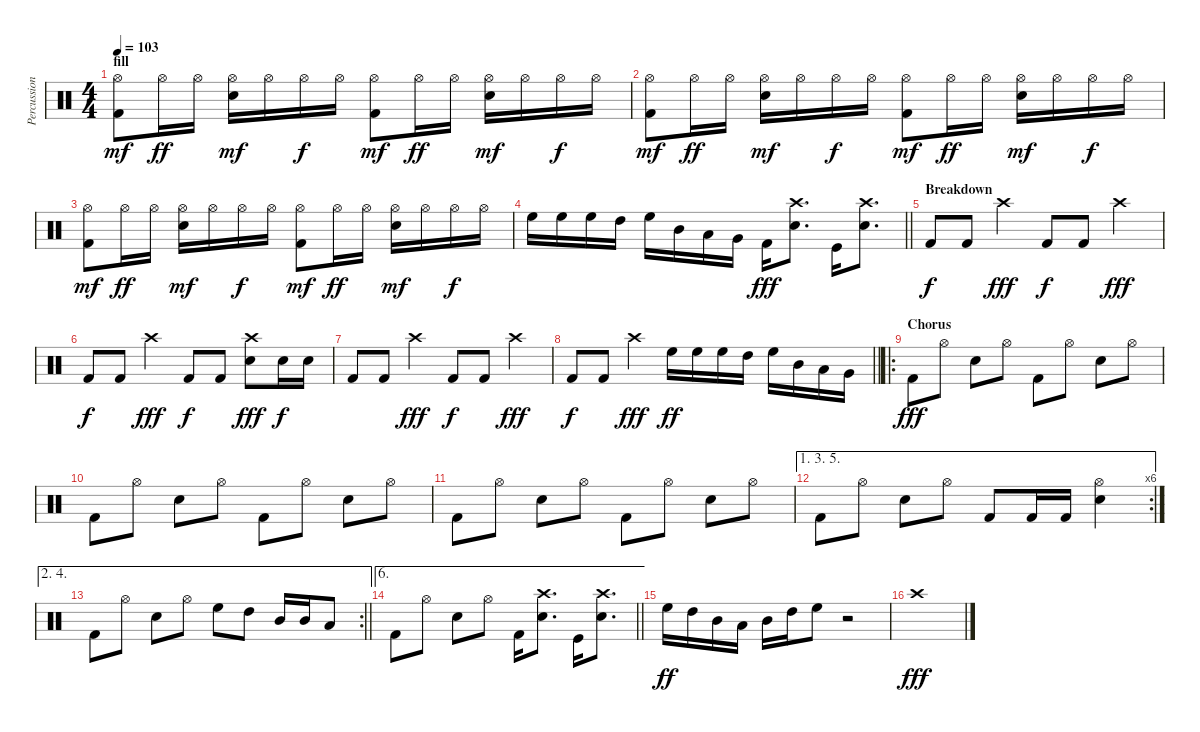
\track ("Percussion" "Percussion") {instrument percussion}
\staff {score}
\articulation defaults
\ts (4 4)
\section ("" "fill")
\tempo 103
\clef neutral
\ks c
("Hi-Hat (open)" "Kick (hit) 2").8{dy mf} "Hi-Hat (open)".16{dy ff} "Hi-Hat (open)".16 ("Hi-Hat (open)" "Snare (hit) 2").16{dy mf} "Hi-Hat (open)".16 "Hi-Hat (open)".16{dy f} "Hi-Hat (open)".16 ("Hi-Hat (open)" "Kick (hit) 2").8{dy mf} "Hi-Hat (open)".16{dy ff} "Hi-Hat (open)".16 ("Hi-Hat (open)" "Snare (hit) 2").16{dy mf} "Hi-Hat (open)".16 "Hi-Hat (open)".16{dy f} "Hi-Hat (open)".16 |
("Hi-Hat (open)" "Kick (hit) 2").8{dy mf} "Hi-Hat (open)".16{dy ff} "Hi-Hat (open)".16 ("Hi-Hat (open)" "Snare (hit) 2").16{dy mf} "Hi-Hat (open)".16 "Hi-Hat (open)".16{dy f} "Hi-Hat (open)".16 ("Hi-Hat (open)" "Kick (hit) 2").8{dy mf} "Hi-Hat (open)".16{dy ff} "Hi-Hat (open)".16 ("Hi-Hat (open)" "Snare (hit) 2").16{dy mf} "Hi-Hat (open)".16 "Hi-Hat (open)".16{dy f} "Hi-Hat (open)".16 |
("Hi-Hat (open)" "Kick (hit) 2").8{dy mf} "Hi-Hat (open)".16{dy ff} "Hi-Hat (open)".16 ("Hi-Hat (open)" "Snare (hit) 2").16{dy mf} "Hi-Hat (open)".16 "Hi-Hat (open)".16{dy f} "Hi-Hat (open)".16 ("Hi-Hat (open)" "Kick (hit) 2").8{dy mf} "Hi-Hat (open)".16{dy ff} "Hi-Hat (open)".16 ("Hi-Hat (open)" "Snare (hit) 2").16{dy mf} "Hi-Hat (open)".16 "Hi-Hat (open)".16{dy f} "Hi-Hat (open)".16 |
\barLineRight lightlight "High Floor Tom (hit)".16 "High Floor Tom (hit)".16 "High Floor Tom (hit)".16 "High Tom (hit)".16 "High Floor Tom (hit)".16 "Mid Tom (hit)".16 "Low Tom (hit)".16 "Very Low Tom (hit)".16 "Kick (hit) 2".16{dy fff}
("Crash high (hit)" "Electric Snare (hit)").8{d} "Kick (hit)".16 ("Crash high (hit)" "Snare (hit) 2").8{d} |
\section ("" "Breakdown")
"Kick (hit) 2".8{dy f} "Kick (hit) 2".8 "Crash high (hit)".4{dy fff} "Kick (hit) 2".8{dy f} "Kick (hit) 2".8 "Crash high (hit)".4{dy fff} |
"Kick (hit) 2".8{dy f} "Kick (hit) 2".8 "Crash high (hit)".4{dy fff} "Kick (hit) 2".8{dy f} "Kick (hit) 2".8 ("Crash high (hit)" "Snare (hit) 2").8{dy fff} "Snare (hit) 2".16{dy f} "Snare (hit) 2".16 |
"Kick (hit) 2".8 "Kick (hit) 2".8 "Crash high (hit)".4{dy fff} "Kick (hit) 2".8{dy f} "Kick (hit) 2".8 "Crash high (hit)".4{dy fff} |
\barLineRight lightlight "Kick (hit) 2".8{dy f} "Kick (hit) 2".8 "Crash high (hit)".4{dy fff} "High Floor Tom (hit)".16{dy ff} "High Floor Tom (hit)".16 "High Floor Tom (hit)".16 "High Tom (hit)".16 "High Floor Tom (hit)".16 "Mid Tom (hit)".16 "Low Tom (hit)".16 "Very Low Tom (hit)".16
|
\ro
\section ("" "Chorus")
"Kick (hit) 2".8{dy fff} "Hi-Hat (open)".8 "Snare (hit) 2".8 "Hi-Hat (open)".8 "Kick (hit) 2".8 "Hi-Hat (open)".8 "Snare (hit) 2".8 "Hi-Hat (open)".8 |
"Kick (hit) 2".8 "Hi-Hat (open)".8 "Snare (hit) 2".8 "Hi-Hat (open)".8 "Kick (hit) 2".8 "Hi-Hat (open)".8 "Snare (hit) 2".8 "Hi-Hat (open)".8 |
"Kick (hit) 2".8 "Hi-Hat (open)".8 "Snare (hit) 2".8 "Hi-Hat (open)".8 "Kick (hit) 2".8 "Hi-Hat (open)".8 "Snare (hit) 2".8 "Hi-Hat (open)".8 |
\ae (1 3 5)
\rc 6 "Kick (hit) 2".8 "Hi-Hat (open)".8 "Snare (hit) 2".8 "Hi-Hat (open)".8 "Kick (hit) 2".8 "Kick (hit) 2".16 "Kick (hit) 2".16
("Hi-Hat (open)" "Snare (hit) 2").4 |
\ae (2 4)
\rc 2
\barLineRight lightlight "Kick (hit) 2".8 "Hi-Hat (open)".8 "Snare (hit) 2".8 "Hi-Hat (open)".8 "High Floor Tom (hit)".8 "High Tom (hit)".8 "Mid Tom (hit)".16 "Mid Tom (hit)".16 "Low Tom (hit)".8
|
\ae 6
\barLineRight lightlight "Kick (hit) 2".8 "Hi-Hat (open)".8 "Snare (hit) 2".8 "Hi-Hat (open)".8 "Kick (hit) 2".16
("Crash high (hit)" "Electric Snare (hit)").8{d} "Kick (hit)".16 ("Crash high (hit)" "Snare (hit) 2").8{d} |
"High Floor Tom (hit)".16{dy ff} "High Tom (hit)".16 "Mid Tom (hit)".16 "Low Tom (hit)".16 "Mid Tom (hit)".16 "High Tom (hit)".16 "High Floor Tom (hit)".8 r.2 |
"Crash high (hit)".1{dy fff volume 2}
